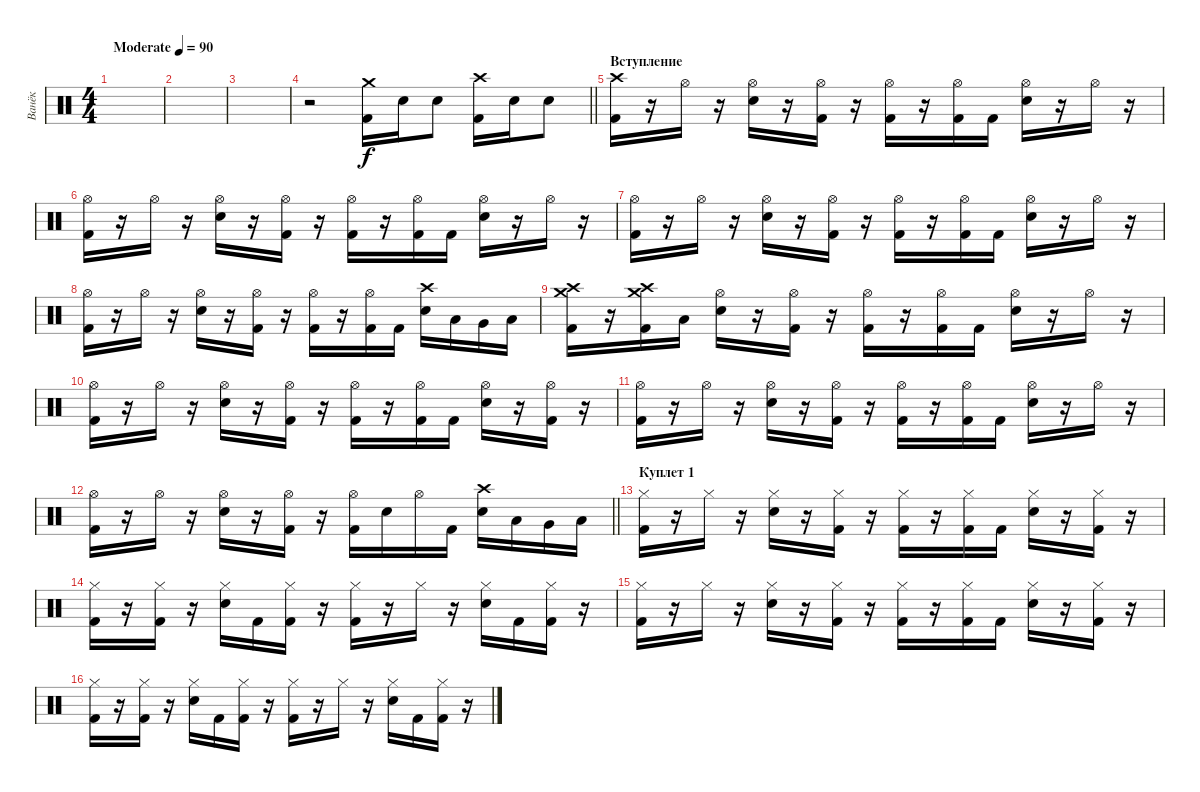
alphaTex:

\track ("Ванёк" "Ванёк") {instrument percussion}
\staff {score}
\articulation defaults
\ts (4 4)
\tempo (90 "Moderate")
\clef neutral
\ks c
|
|
|
\barLineRight lightlight
r.2 ("Crash medium (hit)" "Kick (hit) 2").16 "Electric Snare (hit)".16 "Electric Snare (hit)".8 ("Crash high (hit)" "Kick (hit) 2").16 "Electric Snare (hit)".16 "Electric Snare (hit)".8 |
\section ("" "Вступление")
("Crash high (hit)" "Kick (hit) 2").16 r.16 "Hi-Hat (open)".16 r.16 ("Hi-Hat (open)" "Electric Snare (hit)").16 r.16 ("Hi-Hat (open)" "Kick (hit) 2").16 r.16 ("Hi-Hat (open)" "Kick (hit) 2").16 r.16 ("Hi-Hat (open)" "Kick (hit) 2").16 "Kick (hit) 2".16 ("Hi-Hat (open)" "Electric Snare (hit)").16 r.16 "Hi-Hat (open)".16 r.16 |
("Hi-Hat (open)" "Kick (hit) 2").16 r.16 "Hi-Hat (open)".16 r.16 ("Hi-Hat (open)" "Electric Snare (hit)").16 r.16 ("Hi-Hat (open)" "Kick (hit) 2").16 r.16 ("Hi-Hat (open)" "Kick (hit) 2").16 r.16 ("Hi-Hat (open)" "Kick (hit) 2").16 "Kick (hit) 2".16 ("Hi-Hat (open)" "Electric Snare (hit)").16 r.16 "Hi-Hat (open)".16 r.16 |
("Hi-Hat (open)" "Kick (hit) 2").16 r.16 "Hi-Hat (open)".16 r.16 ("Hi-Hat (open)" "Electric Snare (hit)").16 r.16 ("Hi-Hat (open)" "Kick (hit) 2").16 r.16 ("Hi-Hat (open)" "Kick (hit) 2").16 r.16 ("Hi-Hat (open)" "Kick (hit) 2").16 "Kick (hit) 2".16 ("Hi-Hat (open)" "Electric Snare (hit)").16 r.16 "Hi-Hat (open)".16 r.16 |
("Hi-Hat (open)" "Kick (hit) 2").16 r.16 "Hi-Hat (open)".16 r.16 ("Hi-Hat (open)" "Electric Snare (hit)").16 r.16 ("Hi-Hat (open)" "Kick (hit) 2").16 r.16 ("Hi-Hat (open)" "Kick (hit) 2").16 r.16 ("Hi-Hat (open)" "Kick (hit) 2").16 "Kick (hit) 2".16 ("Crash high (hit)" "Electric Snare (hit)").16 "Low Floor Tom (hit)".16 "Very Low Tom (hit)".16 "Low Tom (hit)".16 |
("Crash medium (hit)" "Crash high (hit)" "Kick (hit) 2").16 r.16 ("Crash medium (hit)" "Crash high (hit)" "Kick (hit) 2").16 "Low Floor Tom (hit)".16 ("Hi-Hat (open)" "Electric Snare (hit)").16 r.16 ("Hi-Hat (open)" "Kick (hit) 2").16 r.16 ("Hi-Hat (open)" "Kick (hit) 2").16 r.16 ("Hi-Hat (open)" "Kick (hit) 2").16 "Kick (hit) 2".16 ("Hi-Hat (open)" "Electric Snare (hit)").16 r.16 "Hi-Hat (open)".16 r.16 |
("Hi-Hat (open)" "Kick (hit) 2").16 r.16 "Hi-Hat (open)".16 r.16 ("Hi-Hat (open)" "Electric Snare (hit)").16 r.16 ("Hi-Hat (open)" "Kick (hit) 2").16 r.16 ("Hi-Hat (open)" "Kick (hit) 2").16 r.16 ("Hi-Hat (open)" "Kick (hit) 2").16 "Kick (hit) 2".16 ("Hi-Hat (open)" "Electric Snare (hit)").16 r.16 ("Hi-Hat (open)" "Kick (hit) 2").16 r.16 |
("Hi-Hat (open)" "Kick (hit) 2").16 r.16 "Hi-Hat (open)".16 r.16 ("Hi-Hat (open)" "Electric Snare (hit)").16 r.16 ("Hi-Hat (open)" "Kick (hit) 2").16 r.16 ("Hi-Hat (open)" "Kick (hit) 2").16 r.16 ("Hi-Hat (open)" "Kick (hit) 2").16 "Kick (hit) 2".16 ("Hi-Hat (open)" "Electric Snare (hit)").16 r.16 "Hi-Hat (open)".16 r.16 |
\barLineRight lightlight
("Hi-Hat (open)" "Kick (hit) 2").16 r.16 "Hi-Hat (open)".16 r.16 ("Hi-Hat (open)" "Electric Snare (hit)").16 r.16 ("Hi-Hat (open)" "Kick (hit) 2").16 r.16 ("Hi-Hat (open)" "Kick (hit) 2").16 "Electric Snare (hit)".16 "Hi-Hat (open)".16 "Kick (hit) 2".16 ("Crash high (hit)" "Electric Snare (hit)").16 "Low Floor Tom (hit)".16 "Very Low Tom (hit)".16 "Low Tom (hit)".16 |
\section ("" "Куплет 1")
("Hi-Hat (closed)" "Kick (hit) 2").16 r.16 "Hi-Hat (closed)".16 r.16 ("Hi-Hat (closed)" "Electric Snare (hit)").16 r.16 ("Hi-Hat (closed)" "Kick (hit) 2").16 r.16 ("Hi-Hat (closed)" "Kick (hit) 2").16 r.16 ("Hi-Hat (closed)" "Kick (hit) 2").16 "Kick (hit) 2".16 ("Hi-Hat (closed)" "Electric Snare (hit)").16 r.16 ("Hi-Hat (closed)" "Kick (hit) 2").16 r.16 |
("Hi-Hat (closed)" "Kick (hit) 2").16 r.16 ("Hi-Hat (closed)" "Kick (hit) 2").16 r.16 ("Hi-Hat (closed)" "Electric Snare (hit)").16 "Kick (hit) 2".16 ("Hi-Hat (closed)" "Kick (hit) 2").16 r.16 ("Hi-Hat (closed)" "Kick (hit) 2").16 r.16 "Hi-Hat (closed)".16 r.16 ("Hi-Hat (closed)" "Electric Snare (hit)").16 "Kick (hit) 2".16 ("Hi-Hat (closed)" "Kick (hit) 2").16 r.16 |
("Hi-Hat (closed)" "Kick (hit) 2").16 r.16 "Hi-Hat (closed)".16 r.16 ("Hi-Hat (closed)" "Electric Snare (hit)").16 r.16 ("Hi-Hat (closed)" "Kick (hit) 2").16 r.16 ("Hi-Hat (closed)" "Kick (hit) 2").16 r.16 ("Hi-Hat (closed)" "Kick (hit) 2").16 "Kick (hit) 2".16 ("Hi-Hat (closed)" "Electric Snare (hit)").16 r.16 ("Hi-Hat (closed)" "Kick (hit) 2").16 r.16 |
("Hi-Hat (closed)" "Kick (hit) 2").16 r.16 ("Hi-Hat (closed)" "Kick (hit) 2").16 r.16 ("Hi-Hat (closed)" "Electric Snare (hit)").16 "Kick (hit) 2".16 ("Hi-Hat (closed)" "Kick (hit) 2").16 r.16 ("Hi-Hat (closed)" "Kick (hit) 2").16 r.16 "Hi-Hat (closed)".16 r.16 ("Hi-Hat (closed)" "Electric Snare (hit)").16 "Kick (hit) 2".16 ("Hi-Hat (closed)" "Kick (hit) 2").16 r.16
